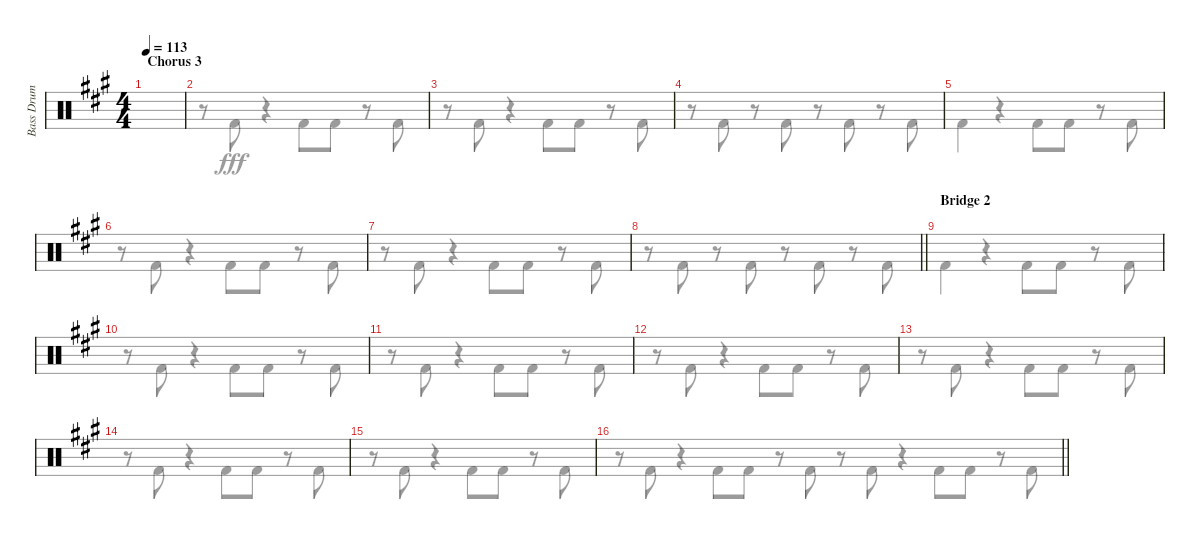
\track ("Bass Drum" "Bass Drum") {instrument percussion}
\staff {score}
\articulation defaults
\voice
\ts (4 4)
\section ("" "Chorus 3")
\tempo 113
\clef neutral
\ks f#minor
|
|
|
|
|
|
|
\barLineRight lightlight
|
\section ("" "Bridge 2")
|
|
|
|
|
|
|
\barLineRight lightlight
\voice
\clef neutral
\ks f#minor
r.8{dy fff} "Kick (hit) 2".8 r.4 "Kick (hit) 2".8 "Kick (hit) 2".8 r.8 "Kick (hit) 2".8 |
r.8 "Kick (hit) 2".8 r.4 "Kick (hit) 2".8 "Kick (hit) 2".8 r.8 "Kick (hit) 2".8 |
r.8 "Kick (hit) 2".8 r.4 "Kick (hit) 2".8 "Kick (hit) 2".8 r.8 "Kick (hit) 2".8 |
r.8 "Kick (hit) 2".8 r.8 "Kick (hit) 2".8 r.8 "Kick (hit) 2".8 r.8 "Kick (hit) 2".8 |
"Kick (hit) 2".4 r.4 "Kick (hit) 2".8 "Kick (hit) 2".8 r.8 "Kick (hit) 2".8 |
r.8 "Kick (hit) 2".8 r.4 "Kick (hit) 2".8 "Kick (hit) 2".8 r.8 "Kick (hit) 2".8 |
r.8 "Kick (hit) 2".8 r.4 "Kick (hit) 2".8 "Kick (hit) 2".8 r.8 "Kick (hit) 2".8 |
\barLineRight lightlight
r.8 "Kick (hit) 2".8 r.8 "Kick (hit) 2".8 r.8 "Kick (hit) 2".8 r.8 "Kick (hit) 2".8 |
"Kick (hit) 2".4 r.4 "Kick (hit) 2".8 "Kick (hit) 2".8 r.8 "Kick (hit) 2".8 |
r.8 "Kick (hit) 2".8 r.4 "Kick (hit) 2".8 "Kick (hit) 2".8 r.8 "Kick (hit) 2".8 |
r.8 "Kick (hit) 2".8 r.4 "Kick (hit) 2".8 "Kick (hit) 2".8 r.8 "Kick (hit) 2".8 |
r.8 "Kick (hit) 2".8 r.4 "Kick (hit) 2".8 "Kick (hit) 2".8 r.8 "Kick (hit) 2".8 |
r.8 "Kick (hit) 2".8 r.4 "Kick (hit) 2".8 "Kick (hit) 2".8 r.8 "Kick (hit) 2".8 |
r.8 "Kick (hit) 2".8 r.4 "Kick (hit) 2".8 "Kick (hit) 2".8 r.8 "Kick (hit) 2".8 |
r.8 "Kick (hit) 2".8 r.4 "Kick (hit) 2".8 "Kick (hit) 2".8 r.8 "Kick (hit) 2".8 |
\barLineRight lightlight
r.8 "Kick (hit) 2".8 r.4 "Kick (hit) 2".8 "Kick (hit) 2".8 r.8 "Kick (hit) 2".8
